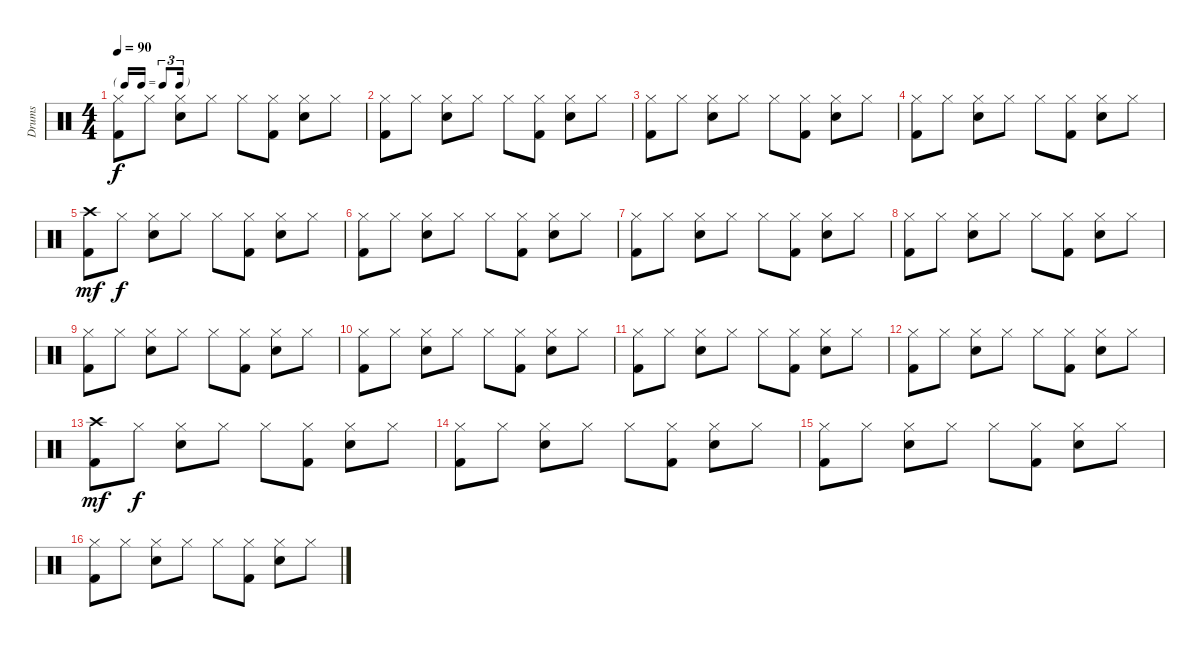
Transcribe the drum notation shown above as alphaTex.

\track ("Drums" "Drums") {instrument percussion}
\staff {score}
\articulation defaults
\ts (4 4)
\tf triplet16th
\tempo 90
\clef neutral
\ks c
("Kick (hit) 2" "Hi-Hat (closed)").8{dy f} "Hi-Hat (closed)".8 ("Electric Snare (hit)" "Hi-Hat (closed)").8 "Hi-Hat (closed)".8 "Hi-Hat (closed)".8 ("Kick (hit) 2" "Hi-Hat (closed)").8 ("Electric Snare (hit)" "Hi-Hat (closed)").8 "Hi-Hat (closed)".8 |
("Kick (hit) 2" "Hi-Hat (closed)").8 "Hi-Hat (closed)".8 ("Electric Snare (hit)" "Hi-Hat (closed)").8 "Hi-Hat (closed)".8 "Hi-Hat (closed)".8 ("Kick (hit) 2" "Hi-Hat (closed)").8 ("Electric Snare (hit)" "Hi-Hat (closed)").8 "Hi-Hat (closed)".8 |
("Kick (hit) 2" "Hi-Hat (closed)").8 "Hi-Hat (closed)".8 ("Electric Snare (hit)" "Hi-Hat (closed)").8 "Hi-Hat (closed)".8 "Hi-Hat (closed)".8 ("Kick (hit) 2" "Hi-Hat (closed)").8 ("Electric Snare (hit)" "Hi-Hat (closed)").8 "Hi-Hat (closed)".8 |
("Kick (hit) 2" "Hi-Hat (closed)").8 "Hi-Hat (closed)".8 ("Electric Snare (hit)" "Hi-Hat (closed)").8 "Hi-Hat (closed)".8 "Hi-Hat (closed)".8 ("Kick (hit) 2" "Hi-Hat (closed)").8 ("Electric Snare (hit)" "Hi-Hat (closed)").8 "Hi-Hat (closed)".8 |
("Kick (hit) 2" "Crash high (hit)").8{dy mf} "Hi-Hat (closed)".8{dy f} ("Electric Snare (hit)" "Hi-Hat (closed)").8 "Hi-Hat (closed)".8 "Hi-Hat (closed)".8 ("Kick (hit) 2" "Hi-Hat (closed)").8 ("Electric Snare (hit)" "Hi-Hat (closed)").8 "Hi-Hat (closed)".8 |
("Kick (hit) 2" "Hi-Hat (closed)").8 "Hi-Hat (closed)".8 ("Electric Snare (hit)" "Hi-Hat (closed)").8 "Hi-Hat (closed)".8 "Hi-Hat (closed)".8 ("Kick (hit) 2" "Hi-Hat (closed)").8 ("Electric Snare (hit)" "Hi-Hat (closed)").8 "Hi-Hat (closed)".8 |
("Kick (hit) 2" "Hi-Hat (closed)").8 "Hi-Hat (closed)".8 ("Electric Snare (hit)" "Hi-Hat (closed)").8 "Hi-Hat (closed)".8 "Hi-Hat (closed)".8 ("Kick (hit) 2" "Hi-Hat (closed)").8 ("Electric Snare (hit)" "Hi-Hat (closed)").8 "Hi-Hat (closed)".8 |
("Kick (hit) 2" "Hi-Hat (closed)").8 "Hi-Hat (closed)".8 ("Electric Snare (hit)" "Hi-Hat (closed)").8 "Hi-Hat (closed)".8 "Hi-Hat (closed)".8 ("Kick (hit) 2" "Hi-Hat (closed)").8 ("Electric Snare (hit)" "Hi-Hat (closed)").8 "Hi-Hat (closed)".8 |
("Kick (hit) 2" "Hi-Hat (closed)").8 "Hi-Hat (closed)".8 ("Electric Snare (hit)" "Hi-Hat (closed)").8 "Hi-Hat (closed)".8 "Hi-Hat (closed)".8 ("Kick (hit) 2" "Hi-Hat (closed)").8 ("Electric Snare (hit)" "Hi-Hat (closed)").8 "Hi-Hat (closed)".8 |
("Kick (hit) 2" "Hi-Hat (closed)").8 "Hi-Hat (closed)".8 ("Electric Snare (hit)" "Hi-Hat (closed)").8 "Hi-Hat (closed)".8 "Hi-Hat (closed)".8 ("Kick (hit) 2" "Hi-Hat (closed)").8 ("Electric Snare (hit)" "Hi-Hat (closed)").8 "Hi-Hat (closed)".8 |
("Kick (hit) 2" "Hi-Hat (closed)").8 "Hi-Hat (closed)".8 ("Electric Snare (hit)" "Hi-Hat (closed)").8 "Hi-Hat (closed)".8 "Hi-Hat (closed)".8 ("Kick (hit) 2" "Hi-Hat (closed)").8 ("Electric Snare (hit)" "Hi-Hat (closed)").8 "Hi-Hat (closed)".8 |
("Kick (hit) 2" "Hi-Hat (closed)").8 "Hi-Hat (closed)".8 ("Electric Snare (hit)" "Hi-Hat (closed)").8 "Hi-Hat (closed)".8 "Hi-Hat (closed)".8 ("Kick (hit) 2" "Hi-Hat (closed)").8 ("Electric Snare (hit)" "Hi-Hat (closed)").8 "Hi-Hat (closed)".8 |
("Kick (hit) 2" "Crash high (hit)").8{dy mf} "Hi-Hat (closed)".8{dy f} ("Electric Snare (hit)" "Hi-Hat (closed)").8 "Hi-Hat (closed)".8 "Hi-Hat (closed)".8 ("Kick (hit) 2" "Hi-Hat (closed)").8 ("Electric Snare (hit)" "Hi-Hat (closed)").8 "Hi-Hat (closed)".8 |
("Kick (hit) 2" "Hi-Hat (closed)").8 "Hi-Hat (closed)".8 ("Electric Snare (hit)" "Hi-Hat (closed)").8 "Hi-Hat (closed)".8 "Hi-Hat (closed)".8 ("Kick (hit) 2" "Hi-Hat (closed)").8 ("Electric Snare (hit)" "Hi-Hat (closed)").8 "Hi-Hat (closed)".8 |
("Kick (hit) 2" "Hi-Hat (closed)").8 "Hi-Hat (closed)".8 ("Electric Snare (hit)" "Hi-Hat (closed)").8 "Hi-Hat (closed)".8 "Hi-Hat (closed)".8 ("Kick (hit) 2" "Hi-Hat (closed)").8 ("Electric Snare (hit)" "Hi-Hat (closed)").8 "Hi-Hat (closed)".8 |
("Kick (hit) 2" "Hi-Hat (closed)").8 "Hi-Hat (closed)".8 ("Electric Snare (hit)" "Hi-Hat (closed)").8 "Hi-Hat (closed)".8 "Hi-Hat (closed)".8 ("Kick (hit) 2" "Hi-Hat (closed)").8 ("Electric Snare (hit)" "Hi-Hat (closed)").8 "Hi-Hat (closed)".8
